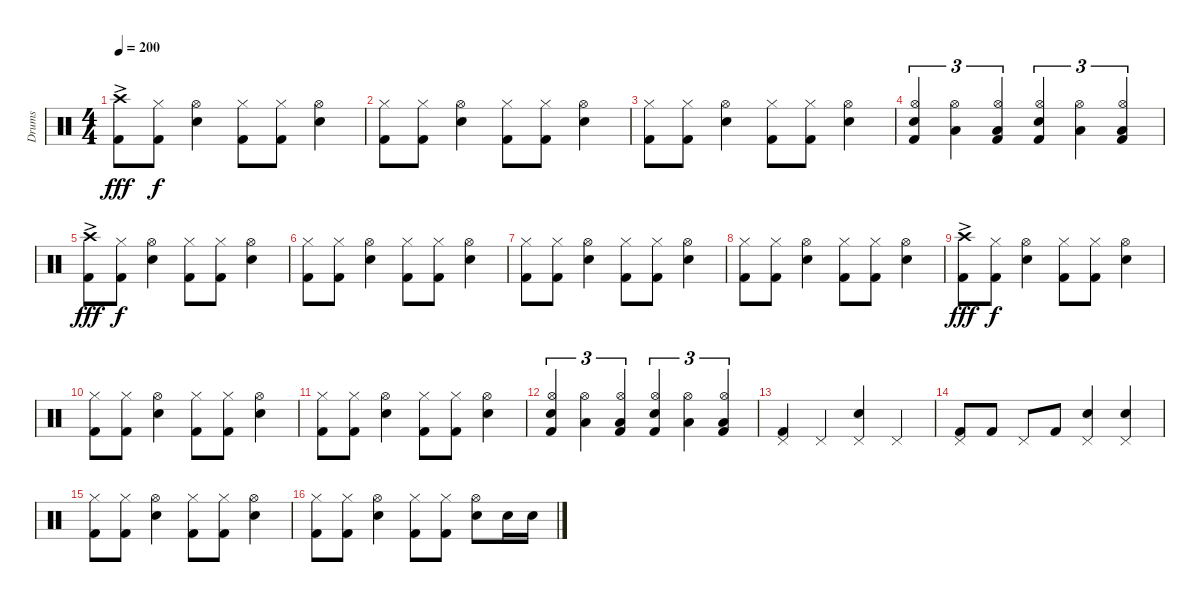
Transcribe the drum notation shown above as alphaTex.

\track ("Drums" "Drums") {instrument percussion}
\staff {score}
\articulation defaults
\ts (4 4)
\tempo 200
\clef neutral
\ks c
("Crash high (hit)"{ac} "Kick (hit) 2").8{dy fff} ("Hi-Hat (closed)" "Kick (hit) 2").8{dy f} ("Hi-Hat (open)" "Snare (hit) 2").4 ("Hi-Hat (closed)" "Kick (hit) 2").8 ("Hi-Hat (closed)" "Kick (hit) 2").8 ("Hi-Hat (open)" "Snare (hit) 2").4 |
("Hi-Hat (closed)" "Kick (hit) 2").8 ("Hi-Hat (closed)" "Kick (hit) 2").8 ("Hi-Hat (open)" "Snare (hit) 2").4 ("Hi-Hat (closed)" "Kick (hit) 2").8 ("Hi-Hat (closed)" "Kick (hit) 2").8 ("Hi-Hat (open)" "Snare (hit) 2").4 |
("Hi-Hat (closed)" "Kick (hit) 2").8 ("Hi-Hat (closed)" "Kick (hit) 2").8 ("Hi-Hat (open)" "Snare (hit) 2").4 ("Hi-Hat (closed)" "Kick (hit) 2").8 ("Hi-Hat (closed)" "Kick (hit) 2").8 ("Hi-Hat (open)" "Snare (hit) 2").4 |
("Hi-Hat (open)" "Snare (hit) 2" "Kick (hit) 2").4{tu (3 2)} ("Hi-Hat (open)" "Low Tom (hit)").4{tu (3 2)} ("Hi-Hat (open)" "Low Floor Tom (hit)" "Kick (hit) 2").4{tu (3 2)} ("Hi-Hat (open)" "Snare (hit) 2" "Kick (hit) 2").4{tu (3 2)} ("Hi-Hat (open)" "Low Tom (hit)").4{tu (3 2)} ("Hi-Hat (open)" "Low Floor Tom (hit)" "Kick (hit) 2").4{tu (3 2)} |
("Crash high (hit)"{ac} "Kick (hit) 2").8{dy fff} ("Hi-Hat (closed)" "Kick (hit) 2").8{dy f} ("Hi-Hat (open)" "Snare (hit) 2").4 ("Hi-Hat (closed)" "Kick (hit) 2").8 ("Hi-Hat (closed)" "Kick (hit) 2").8 ("Hi-Hat (open)" "Snare (hit) 2").4 |
("Hi-Hat (closed)" "Kick (hit) 2").8 ("Hi-Hat (closed)" "Kick (hit) 2").8 ("Hi-Hat (open)" "Snare (hit) 2").4 ("Hi-Hat (closed)" "Kick (hit) 2").8 ("Hi-Hat (closed)" "Kick (hit) 2").8 ("Hi-Hat (open)" "Snare (hit) 2").4 |
("Hi-Hat (closed)" "Kick (hit) 2").8 ("Hi-Hat (closed)" "Kick (hit) 2").8 ("Hi-Hat (open)" "Snare (hit) 2").4 ("Hi-Hat (closed)" "Kick (hit) 2").8 ("Hi-Hat (closed)" "Kick (hit) 2").8 ("Hi-Hat (open)" "Snare (hit) 2").4 |
("Hi-Hat (closed)" "Kick (hit) 2").8 ("Hi-Hat (closed)" "Kick (hit) 2").8 ("Hi-Hat (open)" "Snare (hit) 2").4 ("Hi-Hat (closed)" "Kick (hit) 2").8 ("Hi-Hat (closed)" "Kick (hit) 2").8 ("Hi-Hat (open)" "Snare (hit) 2").4 |
("Crash high (hit)"{ac} "Kick (hit) 2").8{dy fff} ("Hi-Hat (closed)" "Kick (hit) 2").8{dy f} ("Hi-Hat (open)" "Snare (hit) 2").4 ("Hi-Hat (closed)" "Kick (hit) 2").8 ("Hi-Hat (closed)" "Kick (hit) 2").8 ("Hi-Hat (open)" "Snare (hit) 2").4 |
("Hi-Hat (closed)" "Kick (hit) 2").8 ("Hi-Hat (closed)" "Kick (hit) 2").8 ("Hi-Hat (open)" "Snare (hit) 2").4 ("Hi-Hat (closed)" "Kick (hit) 2").8 ("Hi-Hat (closed)" "Kick (hit) 2").8 ("Hi-Hat (open)" "Snare (hit) 2").4 |
("Hi-Hat (closed)" "Kick (hit) 2").8 ("Hi-Hat (closed)" "Kick (hit) 2").8 ("Hi-Hat (open)" "Snare (hit) 2").4 ("Hi-Hat (closed)" "Kick (hit) 2").8 ("Hi-Hat (closed)" "Kick (hit) 2").8 ("Hi-Hat (open)" "Snare (hit) 2").4 |
("Hi-Hat (open)" "Snare (hit) 2" "Kick (hit) 2").4{tu (3 2)} ("Hi-Hat (open)" "Low Tom (hit)").4{tu (3 2)} ("Hi-Hat (open)" "Low Floor Tom (hit)" "Kick (hit) 2").4{tu (3 2)} ("Hi-Hat (open)" "Snare (hit) 2" "Kick (hit) 2").4{tu (3 2)} ("Hi-Hat (open)" "Low Tom (hit)").4{tu (3 2)} ("Hi-Hat (open)" "Low Floor Tom (hit)" "Kick (hit) 2").4{tu (3 2)} |
("Pedal Hi-Hat (hit)" "Kick (hit) 2").4 "Pedal Hi-Hat (hit)".4 ("Pedal Hi-Hat (hit)" "Snare (hit) 2").4 "Pedal Hi-Hat (hit)".4 |
("Pedal Hi-Hat (hit)" "Kick (hit) 2").8 "Kick (hit) 2".8 "Pedal Hi-Hat (hit)".8 "Kick (hit) 2".8 ("Pedal Hi-Hat (hit)" "Snare (hit) 2").4 ("Pedal Hi-Hat (hit)" "Snare (hit) 2").4 |
("Hi-Hat (closed)" "Kick (hit) 2").8 ("Hi-Hat (closed)" "Kick (hit) 2").8 ("Hi-Hat (open)" "Snare (hit) 2").4 ("Hi-Hat (closed)" "Kick (hit) 2").8 ("Hi-Hat (closed)" "Kick (hit) 2").8 ("Hi-Hat (open)" "Snare (hit) 2").4 |
("Hi-Hat (closed)" "Kick (hit) 2").8 ("Hi-Hat (closed)" "Kick (hit) 2").8 ("Hi-Hat (open)" "Snare (hit) 2").4 ("Hi-Hat (closed)" "Kick (hit) 2").8 ("Hi-Hat (closed)" "Kick (hit) 2").8 ("Hi-Hat (open)" "Snare (hit) 2").8 "Snare (hit) 2".16 "Snare (hit) 2".16
